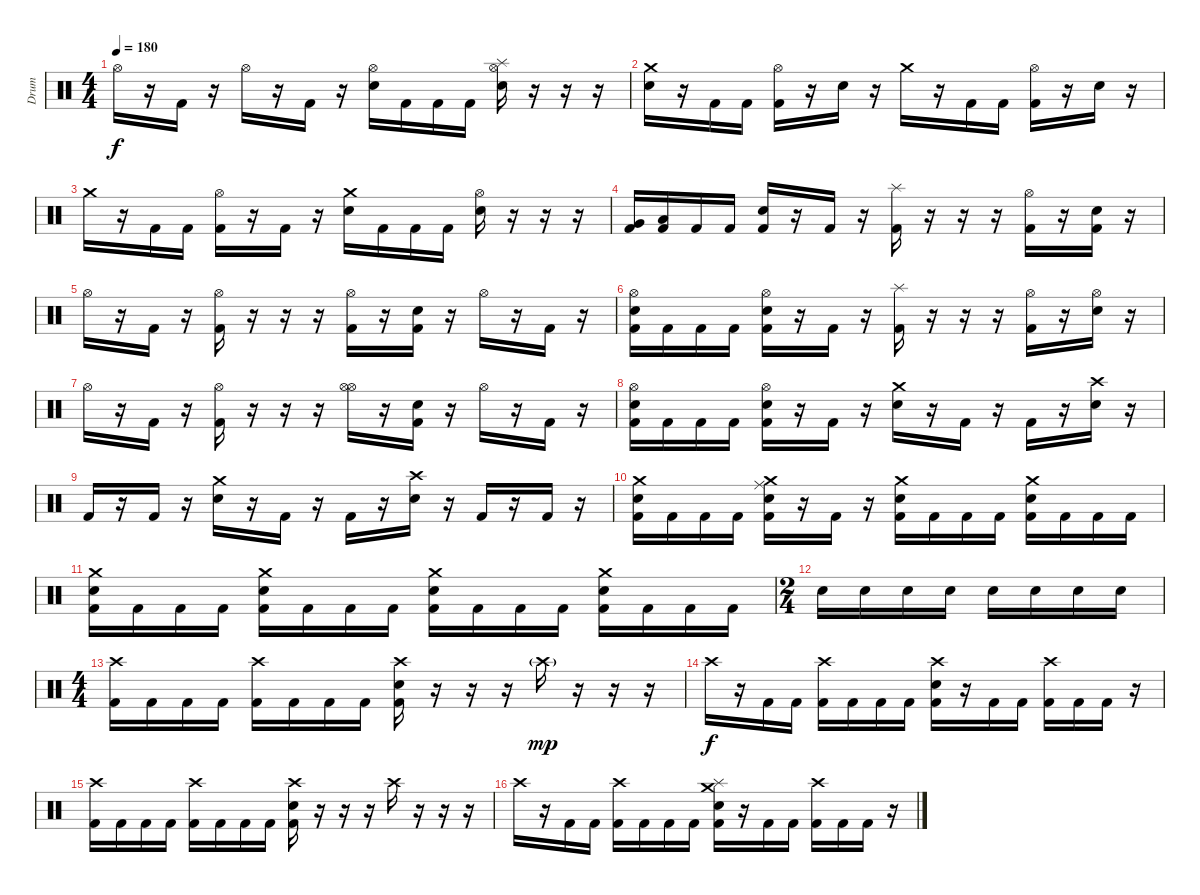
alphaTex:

\track ("Drum" "Drum") {instrument percussion}
\staff {score}
\articulation defaults
\ts (4 4)
\tempo 180
\clef neutral
\ks c "Hi-Hat (open)".16{dy f}
r.16 "Kick (hit) 2".16 r.16 "Hi-Hat (open)".16 r.16 "Kick (hit) 2".16 r.16 ("Hi-Hat (open)" "Electric Snare (hit)").16 "Kick (hit) 2".16 "Kick (hit) 2".16 "Kick (hit) 2".16 ("Hi-Hat (open)" "Splash (hit)" "Electric Snare (hit)").16 r.16 r.16 r.16 |
("Crash medium (hit)" "Electric Snare (hit)").16 r.16 "Kick (hit) 2".16 "Kick (hit) 2".16 ("Hi-Hat (open)" "Kick (hit) 2").16 r.16 "Electric Snare (hit)".16 r.16 "Crash medium (hit)".16 r.16 "Kick (hit) 2".16 "Kick (hit) 2".16 ("Hi-Hat (open)" "Kick (hit) 2").16 r.16 "Electric Snare (hit)".16 r.16 |
"Crash medium (hit)".16 r.16 "Kick (hit) 2".16 "Kick (hit) 2".16 ("Hi-Hat (open)" "Kick (hit) 2").16 r.16 "Kick (hit) 2".16 r.16 ("Crash medium (hit)" "Electric Snare (hit)").16 "Kick (hit) 2".16 "Kick (hit) 2".16 "Kick (hit) 2".16 ("Hi-Hat (open)" "Electric Snare (hit)").16 r.16 r.16 r.16 |
("Very Low Tom (hit)" "Kick (hit) 2").16 ("Low Floor Tom (hit)" "Kick (hit) 2").16 "Kick (hit) 2".16 "Kick (hit) 2".16 ("Electric Snare (hit)" "Kick (hit) 2").16 r.16 "Kick (hit) 2".16 r.16 ("Splash (hit)" "Kick (hit) 2").16 r.16 r.16 r.16 ("Hi-Hat (open)" "Kick (hit) 2").16 r.16 ("Electric Snare (hit)" "Kick (hit) 2").16 r.16 |
"Hi-Hat (open)".16 r.16 "Kick (hit) 2".16 r.16 ("Hi-Hat (open)" "Kick (hit) 2").16 r.16 r.16 r.16 ("Hi-Hat (open)" "Kick (hit) 2").16 r.16 ("Electric Snare (hit)" "Kick (hit) 2").16 r.16 "Hi-Hat (open)".16 r.16 "Kick (hit) 2".16 r.16 |
("Hi-Hat (open)" "Electric Snare (hit)" "Kick (hit) 2").16 "Kick (hit) 2".16 "Kick (hit) 2".16 "Kick (hit) 2".16 ("Hi-Hat (open)" "Electric Snare (hit)" "Kick (hit) 2").16 r.16 "Kick (hit) 2".16 r.16 ("Splash (hit)" "Kick (hit) 2").16 r.16 r.16 r.16 ("Hi-Hat (open)" "Kick (hit) 2").16 r.16 ("Electric Snare (hit)" "Hi-Hat (open)").16 r.16 |
"Hi-Hat (open)".16 r.16 "Kick (hit) 2".16 r.16 ("Hi-Hat (open)" "Kick (hit) 2").16 r.16 r.16 r.16 ("Hi-Hat (open)" "Hi-Hat (open)").16 r.16 ("Electric Snare (hit)" "Kick (hit) 2").16 r.16 "Hi-Hat (open)".16 r.16 "Kick (hit) 2".16 r.16 |
("Hi-Hat (open)" "Electric Snare (hit)" "Kick (hit) 2").16 "Kick (hit) 2".16 "Kick (hit) 2".16 "Kick (hit) 2".16 ("Hi-Hat (open)" "Electric Snare (hit)" "Kick (hit) 2").16 r.16 "Kick (hit) 2".16 r.16 ("Crash medium (hit)" "Electric Snare (hit)").16 r.16 "Kick (hit) 2".16 r.16 "Kick (hit) 2".16 r.16 ("Crash high (hit)" "Electric Snare (hit)").16 r.16 |
"Kick (hit) 2".16 r.16 "Kick (hit) 2".16 r.16 ("Crash medium (hit)" "Electric Snare (hit)").16 r.16 "Kick (hit) 2".16 r.16 "Kick (hit) 2".16 r.16 ("Crash high (hit)" "Electric Snare (hit)").16 r.16 "Kick (hit) 2".16 r.16 "Kick (hit) 2".16 r.16 |
("Crash medium (hit)" "Electric Snare (hit)" "Kick (hit) 2").16 "Kick (hit) 2".16 "Kick (hit) 2".16 "Kick (hit) 2".16 ("Crash medium (hit)" "Ride (middle)" "Electric Snare (hit)" "Kick (hit) 2").16 r.16 "Kick (hit) 2".16 r.16 ("Crash medium (hit)" "Electric Snare (hit)" "Kick (hit) 2").16 "Kick (hit) 2".16 "Kick (hit) 2".16 "Kick (hit) 2".16 ("Crash medium (hit)" "Electric Snare (hit)" "Kick (hit) 2").16 "Kick (hit) 2".16 "Kick (hit) 2".16 "Kick (hit) 2".16 |
("Crash medium (hit)" "Electric Snare (hit)" "Kick (hit) 2").16 "Kick (hit) 2".16 "Kick (hit) 2".16 "Kick (hit) 2".16 ("Crash medium (hit)" "Electric Snare (hit)" "Kick (hit) 2").16 "Kick (hit) 2".16 "Kick (hit) 2".16 "Kick (hit) 2".16 ("Crash medium (hit)" "Electric Snare (hit)" "Kick (hit) 2").16 "Kick (hit) 2".16 "Kick (hit) 2".16 "Kick (hit) 2".16 ("Crash medium (hit)" "Electric Snare (hit)" "Kick (hit) 2").16 "Kick (hit) 2".16 "Kick (hit) 2".16 "Kick (hit) 2".16 |
\ts (2 4)
"Electric Snare (hit)".16 "Electric Snare (hit)".16 "Electric Snare (hit)".16 "Electric Snare (hit)".16 "Electric Snare (hit)".16 "Electric Snare (hit)".16 "Electric Snare (hit)".16 "Electric Snare (hit)".16 |
\ts (4 4)
("Crash high (hit)" "Kick (hit) 2").16 "Kick (hit) 2".16 "Kick (hit) 2".16 "Kick (hit) 2".16 ("Crash high (hit)" "Kick (hit) 2").16 "Kick (hit) 2".16 "Kick (hit) 2".16 "Kick (hit) 2".16 ("Crash high (hit)" "Electric Snare (hit)" "Kick (hit) 2").16 r.16 r.16 r.16 "Crash high (hit)"{g}.16{dy mp} r.16 r.16 r.16 |
"Crash high (hit)".16{dy f} r.16 "Kick (hit) 2".16 "Kick (hit) 2".16 ("Crash high (hit)" "Kick (hit) 2").16 "Kick (hit) 2".16 "Kick (hit) 2".16 "Kick (hit) 2".16 ("Crash high (hit)" "Electric Snare (hit)" "Kick (hit) 2").16 r.16 "Kick (hit) 2".16 "Kick (hit) 2".16 ("Crash high (hit)" "Kick (hit) 2").16 "Kick (hit) 2".16 "Kick (hit) 2".16 r.16 |
("Crash high (hit)" "Kick (hit) 2").16 "Kick (hit) 2".16 "Kick (hit) 2".16 "Kick (hit) 2".16 ("Crash high (hit)" "Kick (hit) 2").16 "Kick (hit) 2".16 "Kick (hit) 2".16 "Kick (hit) 2".16 ("Crash high (hit)" "Electric Snare (hit)" "Kick (hit) 2").16 r.16 r.16 r.16 "Crash high (hit)".16 r.16 r.16 r.16 |
"Crash high (hit)".16 r.16 "Kick (hit) 2".16 "Kick (hit) 2".16 ("Crash high (hit)" "Kick (hit) 2").16 "Kick (hit) 2".16 "Kick (hit) 2".16 "Kick (hit) 2".16 ("Crash medium (hit)" "Splash (hit)" "Electric Snare (hit)" "Kick (hit) 2").16 r.16 "Kick (hit) 2".16 "Kick (hit) 2".16 ("Crash high (hit)" "Kick (hit) 2").16 "Kick (hit) 2".16 "Kick (hit) 2".16 r.16
